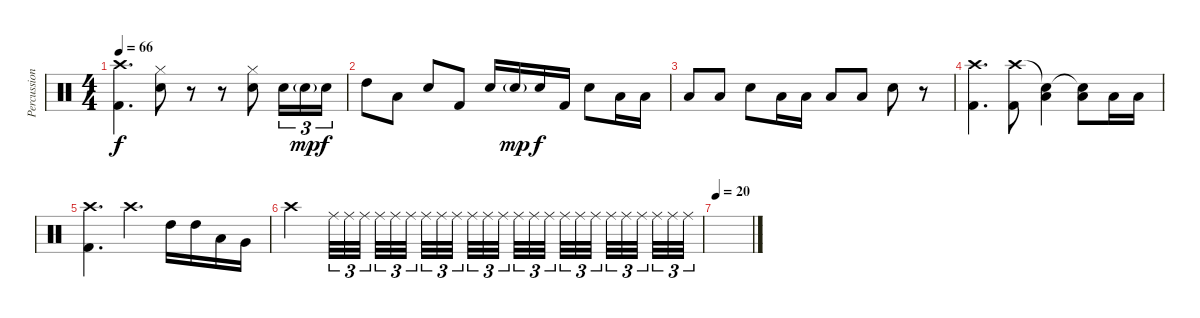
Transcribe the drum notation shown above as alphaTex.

\track ("Percussion" "Percussion") {instrument percussion}
\staff {score}
\articulation defaults
\ts (4 4)
\tempo 66
\clef neutral
\ks c
("Crash high (hit)" "Kick (hit) 2").4{d dy f balance 8} ("Hi-Hat (closed)" "Snare (hit) 2").8 r.8 r.8 ("Hi-Hat (closed)" "Snare (hit) 2").8 "Snare (hit) 2".16{tu (3 2)} "Snare (hit) 2"{g}.16{tu (3 2) dy mp} "Snare (hit) 2".16{tu (3 2) dy f} |
"High Tom (hit)".8 "Low Tom (hit)".8 "Snare (hit) 2".8 "Kick (hit) 2".8 "Snare (hit) 2".16 "Snare (hit) 2"{g}.16{dy mp} "Snare (hit) 2".16{dy f} "Kick (hit) 2".16 "Snare (hit) 2".8 "Low Tom (hit)".16 "Low Floor Tom (hit)".16{balance 16} |
"Low Floor Tom (hit)".8{balance 8} "Low Floor Tom (hit)".8 "Snare (hit) 2".8 "Low Tom (hit)".16{balance 0} "Low Tom (hit)".16 "Low Floor Tom (hit)".8 "Low Floor Tom (hit)".8 "Snare (hit) 2".8{balance 8} r.8 |
("Crash high (hit)" "Kick (hit) 2").4{d} ("Crash high (hit)" "Kick (hit) 2").8 ("Snare (hit)"{t} "Low Tom (hit)").4 ("Snare (hit)"{t} "Low Tom (hit)").8{balance 0} "Low Tom (hit)".16 "Low Floor Tom (hit)".16{balance 16} |
("Crash high (hit)" "Kick (hit) 2").4{d balance 8} "Crash high (hit)".4{d} "High Tom (hit)".16{balance 2} "High Tom (hit)".16 "Low Tom (hit)".16 "Very Low Tom (hit)".16{balance 16} |
"Crash high (hit)".2{balance 8} "Ride (middle)".32{tu (3 2) volume 8 balance 0} "Ride (middle)".32{tu (3 2)} "Ride (middle)".32{tu (3 2)} "Ride (middle)".32{tu (3 2) volume 12 balance 16} "Ride (middle)".32{tu (3 2)} "Ride (middle)".32{tu (3 2)} "Ride (middle)".32{tu (3 2)} "Ride (middle)".32{tu (3 2) volume 15 balance 16} "Ride (middle)".32{tu (3 2)} "Ride (middle)".32{tu (3 2)} "Ride (middle)".32{tu (3 2)} "Ride (middle)".32{tu (3 2)} "Ride (middle)".32{tu (3 2) volume 10 balance 16} "Ride (middle)".32{tu (3 2)} "Ride (middle)".32{tu (3 2)} "Ride (middle)".32{tu (3 2)} "Ride (middle)".32{tu (3 2)} "Ride (middle)".32{tu (3 2) volume 2 balance 8} "Ride (middle)".32{tu (3 2)} "Ride (middle)".32{tu (3 2)} "Ride (middle)".32{tu (3 2)} "Ride (middle)".32{tu (3 2) volume 1 balance 8} "Ride (middle)".32{tu (3 2)} "Ride (middle)".32{tu (3 2)} |
\tempo 20
